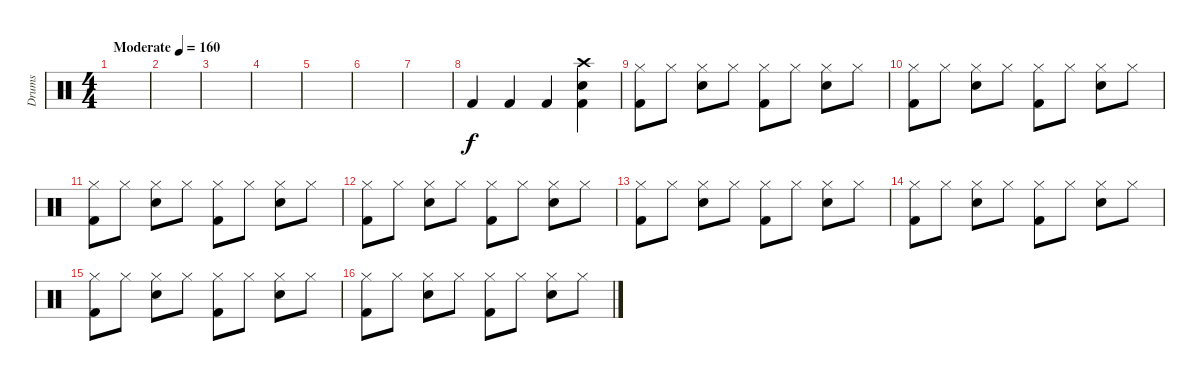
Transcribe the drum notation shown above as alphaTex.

\track ("Drums" "Drums") {instrument percussion}
\staff {score}
\articulation defaults
\ts (4 4)
\tempo (160 "Moderate")
\clef neutral
\ks c
|
|
|
|
|
|
|
"Kick (hit) 2".4 "Kick (hit) 2".4 "Kick (hit) 2".4 ("Kick (hit) 2" "Electric Snare (hit)" "Crash high (hit)").4 |
("Kick (hit) 2" "Hi-Hat (closed)").8 "Hi-Hat (closed)".8 ("Electric Snare (hit)" "Hi-Hat (closed)").8 "Hi-Hat (closed)".8 ("Kick (hit) 2" "Hi-Hat (closed)").8 "Hi-Hat (closed)".8 ("Electric Snare (hit)" "Hi-Hat (closed)").8 "Hi-Hat (closed)".8 |
("Kick (hit) 2" "Hi-Hat (closed)").8 "Hi-Hat (closed)".8 ("Electric Snare (hit)" "Hi-Hat (closed)").8 "Hi-Hat (closed)".8 ("Kick (hit) 2" "Hi-Hat (closed)").8 "Hi-Hat (closed)".8 ("Electric Snare (hit)" "Hi-Hat (closed)").8 "Hi-Hat (closed)".8 |
("Kick (hit) 2" "Hi-Hat (closed)").8 "Hi-Hat (closed)".8 ("Electric Snare (hit)" "Hi-Hat (closed)").8 "Hi-Hat (closed)".8 ("Kick (hit) 2" "Hi-Hat (closed)").8 "Hi-Hat (closed)".8 ("Electric Snare (hit)" "Hi-Hat (closed)").8 "Hi-Hat (closed)".8 |
("Kick (hit) 2" "Hi-Hat (closed)").8 "Hi-Hat (closed)".8 ("Electric Snare (hit)" "Hi-Hat (closed)").8 "Hi-Hat (closed)".8 ("Kick (hit) 2" "Hi-Hat (closed)").8 "Hi-Hat (closed)".8 ("Electric Snare (hit)" "Hi-Hat (closed)").8 "Hi-Hat (closed)".8 |
("Kick (hit) 2" "Hi-Hat (closed)").8 "Hi-Hat (closed)".8 ("Electric Snare (hit)" "Hi-Hat (closed)").8 "Hi-Hat (closed)".8 ("Kick (hit) 2" "Hi-Hat (closed)").8 "Hi-Hat (closed)".8 ("Electric Snare (hit)" "Hi-Hat (closed)").8 "Hi-Hat (closed)".8 |
("Kick (hit) 2" "Hi-Hat (closed)").8 "Hi-Hat (closed)".8 ("Electric Snare (hit)" "Hi-Hat (closed)").8 "Hi-Hat (closed)".8 ("Kick (hit) 2" "Hi-Hat (closed)").8 "Hi-Hat (closed)".8 ("Electric Snare (hit)" "Hi-Hat (closed)").8 "Hi-Hat (closed)".8 |
("Kick (hit) 2" "Hi-Hat (closed)").8 "Hi-Hat (closed)".8 ("Electric Snare (hit)" "Hi-Hat (closed)").8 "Hi-Hat (closed)".8 ("Kick (hit) 2" "Hi-Hat (closed)").8 "Hi-Hat (closed)".8 ("Electric Snare (hit)" "Hi-Hat (closed)").8 "Hi-Hat (closed)".8 |
("Kick (hit) 2" "Hi-Hat (closed)").8 "Hi-Hat (closed)".8 ("Electric Snare (hit)" "Hi-Hat (closed)").8 "Hi-Hat (closed)".8 ("Kick (hit) 2" "Hi-Hat (closed)").8 "Hi-Hat (closed)".8 ("Electric Snare (hit)" "Hi-Hat (closed)").8 "Hi-Hat (closed)".8
